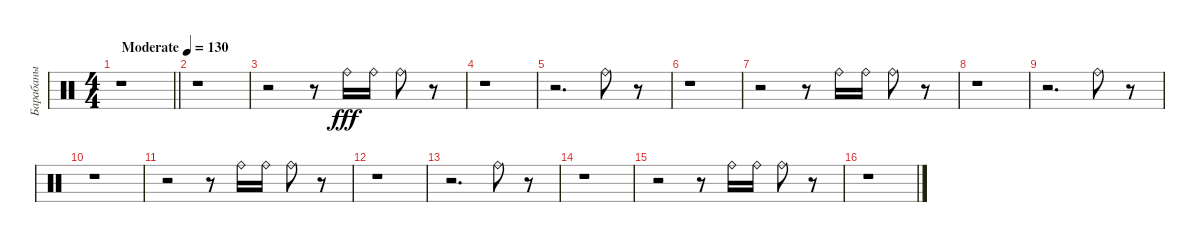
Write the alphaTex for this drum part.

\track ("Барабаны" "Барабаны") {instrument percussion}
\staff {score}
\articulation defaults
\ts (4 4)
\tempo (130 "Moderate")
\clef neutral
\barLineRight lightlight
\ks c
r.1{dy fff} |
\section ("" " ")
r.1 |
r.2 r.8 "Ride (bell)".16 "Ride (bell)".16 "Ride (bell)".8 r.8 |
r.1 |
r.2{d} "Ride (bell)".8 r.8 |
r.1 |
r.2 r.8 "Ride (bell)".16 "Ride (bell)".16 "Ride (bell)".8 r.8 |
r.1 |
r.2{d} "Ride (bell)".8 r.8 |
r.1 |
r.2 r.8 "Ride (bell)".16 "Ride (bell)".16 "Ride (bell)".8 r.8 |
r.1 |
r.2{d} "Ride (bell)".8 r.8 |
r.1 |
r.2 r.8 "Ride (bell)".16 "Ride (bell)".16 "Ride (bell)".8 r.8 |
r.1
